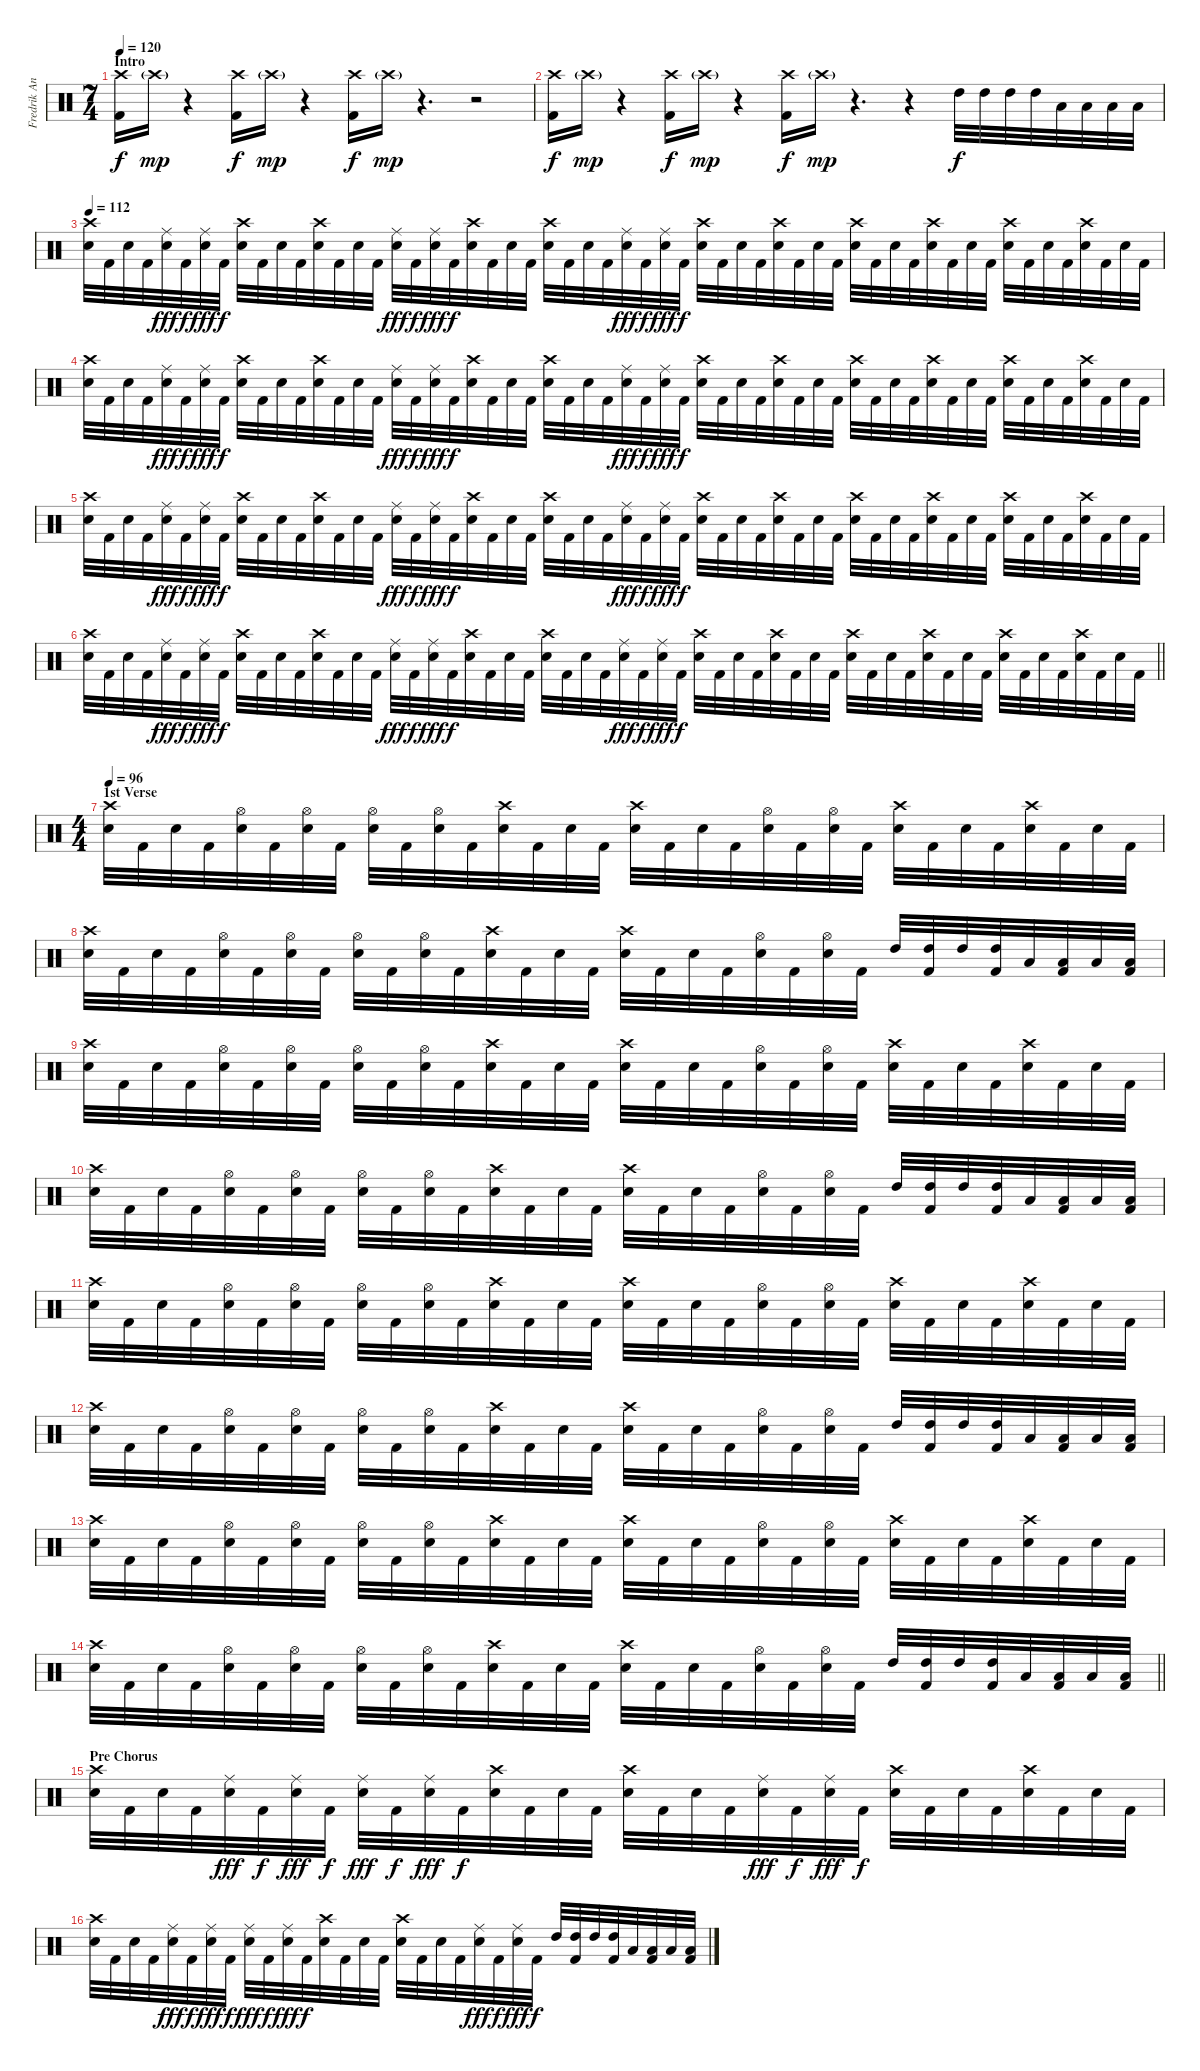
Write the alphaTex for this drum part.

\track ("Fredrik Andersson" "Fredrik An") {instrument percussion}
\staff {score}
\articulation defaults
\ts (7 4)
\section ("" "Intro")
\tempo 120
\tempo 128
\tempo 120
\clef neutral
\ks c
("Crash high (hit)" "Kick (hit) 2").16{dy f} "Crash high (hit)"{g}.16{dy mp} r.4 ("Crash high (hit)" "Kick (hit) 2").16{dy f} "Crash high (hit)"{g}.16{dy mp} r.4 ("Crash high (hit)" "Kick (hit) 2").16{dy f} "Crash high (hit)"{g}.16{dy mp} r.4{d} r.2 |
("Crash high (hit)" "Kick (hit) 2").16{dy f} "Crash high (hit)"{g}.16{dy mp} r.4 ("Crash high (hit)" "Kick (hit) 2").16{dy f} "Crash high (hit)"{g}.16{dy mp} r.4 ("Crash high (hit)" "Kick (hit) 2").16{dy f} "Crash high (hit)"{g}.16{dy mp} r.4{d} r.4 "High Tom (hit)".32{dy f} "High Tom (hit)".32 "High Tom (hit)".32 "High Tom (hit)".32 "Low Tom (hit)".32 "Low Tom (hit)".32 "Low Tom (hit)".32 "Low Tom (hit)".32 |
\tempo 112
("Crash high (hit)" "Snare (hit) 2").32 "Kick (hit) 2".32 "Snare (hit) 2".32 "Kick (hit) 2".32 ("Ride (middle)" "Snare (hit) 2").32{dy fff} "Kick (hit) 2".32{dy f} ("Ride (middle)" "Snare (hit) 2").32{dy fff} "Kick (hit) 2".32{dy f} ("Crash high (hit)" "Snare (hit) 2").32 "Kick (hit) 2".32 "Snare (hit) 2".32 "Kick (hit) 2".32 ("Crash high (hit)" "Snare (hit) 2").32 "Kick (hit) 2".32 "Snare (hit) 2".32 "Kick (hit) 2".32 ("Ride (middle)" "Snare (hit) 2").32{dy fff} "Kick (hit) 2".32{dy f} ("Ride (middle)" "Snare (hit) 2").32{dy fff} "Kick (hit) 2".32{dy f} ("Crash high (hit)" "Snare (hit) 2").32 "Kick (hit) 2".32 "Snare (hit) 2".32 "Kick (hit) 2".32 ("Crash high (hit)" "Snare (hit) 2").32 "Kick (hit) 2".32 "Snare (hit) 2".32 "Kick (hit) 2".32 ("Ride (middle)" "Snare (hit) 2").32{dy fff} "Kick (hit) 2".32{dy f} ("Ride (middle)" "Snare (hit) 2").32{dy fff} "Kick (hit) 2".32{dy f} ("Crash high (hit)" "Snare (hit) 2").32 "Kick (hit) 2".32 "Snare (hit) 2".32 "Kick (hit) 2".32 ("Crash high (hit)" "Snare (hit) 2").32 "Kick (hit) 2".32 "Snare (hit) 2".32 "Kick (hit) 2".32 ("Crash high (hit)" "Snare (hit) 2").32 "Kick (hit) 2".32 "Snare (hit) 2".32 "Kick (hit) 2".32 ("Crash high (hit)" "Snare (hit) 2").32 "Kick (hit) 2".32 "Snare (hit) 2".32 "Kick (hit) 2".32 ("Crash high (hit)" "Snare (hit) 2").32 "Kick (hit) 2".32 "Snare (hit) 2".32 "Kick (hit) 2".32 ("Crash high (hit)" "Snare (hit) 2").32 "Kick (hit) 2".32 "Snare (hit) 2".32 "Kick (hit) 2".32 |
("Crash high (hit)" "Snare (hit) 2").32 "Kick (hit) 2".32 "Snare (hit) 2".32 "Kick (hit) 2".32 ("Ride (middle)" "Snare (hit) 2").32{dy fff} "Kick (hit) 2".32{dy f} ("Ride (middle)" "Snare (hit) 2").32{dy fff} "Kick (hit) 2".32{dy f} ("Crash high (hit)" "Snare (hit) 2").32 "Kick (hit) 2".32 "Snare (hit) 2".32 "Kick (hit) 2".32 ("Crash high (hit)" "Snare (hit) 2").32 "Kick (hit) 2".32 "Snare (hit) 2".32 "Kick (hit) 2".32 ("Ride (middle)" "Snare (hit) 2").32{dy fff} "Kick (hit) 2".32{dy f} ("Ride (middle)" "Snare (hit) 2").32{dy fff} "Kick (hit) 2".32{dy f} ("Crash high (hit)" "Snare (hit) 2").32 "Kick (hit) 2".32 "Snare (hit) 2".32 "Kick (hit) 2".32 ("Crash high (hit)" "Snare (hit) 2").32 "Kick (hit) 2".32 "Snare (hit) 2".32 "Kick (hit) 2".32 ("Ride (middle)" "Snare (hit) 2").32{dy fff} "Kick (hit) 2".32{dy f} ("Ride (middle)" "Snare (hit) 2").32{dy fff} "Kick (hit) 2".32{dy f} ("Crash high (hit)" "Snare (hit) 2").32 "Kick (hit) 2".32 "Snare (hit) 2".32 "Kick (hit) 2".32 ("Crash high (hit)" "Snare (hit) 2").32 "Kick (hit) 2".32 "Snare (hit) 2".32 "Kick (hit) 2".32 ("Crash high (hit)" "Snare (hit) 2").32 "Kick (hit) 2".32 "Snare (hit) 2".32 "Kick (hit) 2".32 ("Crash high (hit)" "Snare (hit) 2").32 "Kick (hit) 2".32 "Snare (hit) 2".32 "Kick (hit) 2".32 ("Crash high (hit)" "Snare (hit) 2").32 "Kick (hit) 2".32 "Snare (hit) 2".32 "Kick (hit) 2".32 ("Crash high (hit)" "Snare (hit) 2").32 "Kick (hit) 2".32 "Snare (hit) 2".32 "Kick (hit) 2".32 |
("Crash high (hit)" "Snare (hit) 2").32 "Kick (hit) 2".32 "Snare (hit) 2".32 "Kick (hit) 2".32 ("Ride (middle)" "Snare (hit) 2").32{dy fff} "Kick (hit) 2".32{dy f} ("Ride (middle)" "Snare (hit) 2").32{dy fff} "Kick (hit) 2".32{dy f} ("Crash high (hit)" "Snare (hit) 2").32 "Kick (hit) 2".32 "Snare (hit) 2".32 "Kick (hit) 2".32 ("Crash high (hit)" "Snare (hit) 2").32 "Kick (hit) 2".32 "Snare (hit) 2".32 "Kick (hit) 2".32 ("Ride (middle)" "Snare (hit) 2").32{dy fff} "Kick (hit) 2".32{dy f} ("Ride (middle)" "Snare (hit) 2").32{dy fff} "Kick (hit) 2".32{dy f} ("Crash high (hit)" "Snare (hit) 2").32 "Kick (hit) 2".32 "Snare (hit) 2".32 "Kick (hit) 2".32 ("Crash high (hit)" "Snare (hit) 2").32 "Kick (hit) 2".32 "Snare (hit) 2".32 "Kick (hit) 2".32 ("Ride (middle)" "Snare (hit) 2").32{dy fff} "Kick (hit) 2".32{dy f} ("Ride (middle)" "Snare (hit) 2").32{dy fff} "Kick (hit) 2".32{dy f} ("Crash high (hit)" "Snare (hit) 2").32 "Kick (hit) 2".32 "Snare (hit) 2".32 "Kick (hit) 2".32 ("Crash high (hit)" "Snare (hit) 2").32 "Kick (hit) 2".32 "Snare (hit) 2".32 "Kick (hit) 2".32 ("Crash high (hit)" "Snare (hit) 2").32 "Kick (hit) 2".32 "Snare (hit) 2".32 "Kick (hit) 2".32 ("Crash high (hit)" "Snare (hit) 2").32 "Kick (hit) 2".32 "Snare (hit) 2".32 "Kick (hit) 2".32 ("Crash high (hit)" "Snare (hit) 2").32 "Kick (hit) 2".32 "Snare (hit) 2".32 "Kick (hit) 2".32 ("Crash high (hit)" "Snare (hit) 2").32 "Kick (hit) 2".32 "Snare (hit) 2".32 "Kick (hit) 2".32 |
\barLineRight lightlight
("Crash high (hit)" "Snare (hit) 2").32 "Kick (hit) 2".32 "Snare (hit) 2".32 "Kick (hit) 2".32 ("Ride (middle)" "Snare (hit) 2").32{dy fff} "Kick (hit) 2".32{dy f} ("Ride (middle)" "Snare (hit) 2").32{dy fff} "Kick (hit) 2".32{dy f} ("Crash high (hit)" "Snare (hit) 2").32 "Kick (hit) 2".32 "Snare (hit) 2".32 "Kick (hit) 2".32 ("Crash high (hit)" "Snare (hit) 2").32 "Kick (hit) 2".32 "Snare (hit) 2".32 "Kick (hit) 2".32 ("Ride (middle)" "Snare (hit) 2").32{dy fff} "Kick (hit) 2".32{dy f} ("Ride (middle)" "Snare (hit) 2").32{dy fff} "Kick (hit) 2".32{dy f} ("Crash high (hit)" "Snare (hit) 2").32 "Kick (hit) 2".32 "Snare (hit) 2".32 "Kick (hit) 2".32 ("Crash high (hit)" "Snare (hit) 2").32 "Kick (hit) 2".32 "Snare (hit) 2".32 "Kick (hit) 2".32 ("Ride (middle)" "Snare (hit) 2").32{dy fff} "Kick (hit) 2".32{dy f} ("Ride (middle)" "Snare (hit) 2").32{dy fff} "Kick (hit) 2".32{dy f} ("Crash high (hit)" "Snare (hit) 2").32 "Kick (hit) 2".32 "Snare (hit) 2".32 "Kick (hit) 2".32 ("Crash high (hit)" "Snare (hit) 2").32 "Kick (hit) 2".32 "Snare (hit) 2".32 "Kick (hit) 2".32 ("Crash high (hit)" "Snare (hit) 2").32 "Kick (hit) 2".32 "Snare (hit) 2".32 "Kick (hit) 2".32 ("Crash high (hit)" "Snare (hit) 2").32 "Kick (hit) 2".32 "Snare (hit) 2".32 "Kick (hit) 2".32 ("Crash high (hit)" "Snare (hit) 2").32 "Kick (hit) 2".32 "Snare (hit) 2".32 "Kick (hit) 2".32 ("Crash high (hit)" "Snare (hit) 2").32 "Kick (hit) 2".32 "Snare (hit) 2".32 "Kick (hit) 2".32 |
\ts (4 4)
\section ("" "1st Verse")
\tempo 96
("Crash high (hit)" "Snare (hit) 2").32 "Kick (hit) 2".32 "Snare (hit) 2".32 "Kick (hit) 2".32 ("Hi-Hat (open)" "Snare (hit) 2").32 "Kick (hit) 2".32 ("Hi-Hat (open)" "Snare (hit) 2").32 "Kick (hit) 2".32 ("Hi-Hat (open)" "Snare (hit) 2").32 "Kick (hit) 2".32 ("Hi-Hat (open)" "Snare (hit) 2").32 "Kick (hit) 2".32 ("Crash high (hit)" "Snare (hit) 2").32 "Kick (hit) 2".32 "Snare (hit) 2".32 "Kick (hit) 2".32 ("Crash high (hit)" "Snare (hit) 2").32 "Kick (hit) 2".32 "Snare (hit) 2".32 "Kick (hit) 2".32 ("Hi-Hat (open)" "Snare (hit) 2").32 "Kick (hit) 2".32 ("Hi-Hat (open)" "Snare (hit) 2").32 "Kick (hit) 2".32 ("Crash high (hit)" "Snare (hit) 2").32 "Kick (hit) 2".32 "Snare (hit) 2".32 "Kick (hit) 2".32 ("Crash high (hit)" "Snare (hit) 2").32 "Kick (hit) 2".32 "Snare (hit) 2".32 "Kick (hit) 2".32 |
("Crash high (hit)" "Snare (hit) 2").32 "Kick (hit) 2".32 "Snare (hit) 2".32 "Kick (hit) 2".32 ("Hi-Hat (open)" "Snare (hit) 2").32 "Kick (hit) 2".32 ("Hi-Hat (open)" "Snare (hit) 2").32 "Kick (hit) 2".32 ("Hi-Hat (open)" "Snare (hit) 2").32 "Kick (hit) 2".32 ("Hi-Hat (open)" "Snare (hit) 2").32 "Kick (hit) 2".32 ("Crash high (hit)" "Snare (hit) 2").32 "Kick (hit) 2".32 "Snare (hit) 2".32 "Kick (hit) 2".32 ("Crash high (hit)" "Snare (hit) 2").32 "Kick (hit) 2".32 "Snare (hit) 2".32 "Kick (hit) 2".32 ("Hi-Hat (open)" "Snare (hit) 2").32 "Kick (hit) 2".32 ("Hi-Hat (open)" "Snare (hit) 2").32 "Kick (hit) 2".32 "High Tom (hit)".32 ("High Tom (hit)" "Kick (hit) 2").32 "High Tom (hit)".32 ("High Tom (hit)" "Kick (hit) 2").32 "Low Tom (hit)".32 ("Low Tom (hit)" "Kick (hit) 2").32 "Low Tom (hit)".32 ("Low Tom (hit)" "Kick (hit) 2").32 |
("Crash high (hit)" "Snare (hit) 2").32 "Kick (hit) 2".32 "Snare (hit) 2".32 "Kick (hit) 2".32 ("Hi-Hat (open)" "Snare (hit) 2").32 "Kick (hit) 2".32 ("Hi-Hat (open)" "Snare (hit) 2").32 "Kick (hit) 2".32 ("Hi-Hat (open)" "Snare (hit) 2").32 "Kick (hit) 2".32 ("Hi-Hat (open)" "Snare (hit) 2").32 "Kick (hit) 2".32 ("Crash high (hit)" "Snare (hit) 2").32 "Kick (hit) 2".32 "Snare (hit) 2".32 "Kick (hit) 2".32 ("Crash high (hit)" "Snare (hit) 2").32 "Kick (hit) 2".32 "Snare (hit) 2".32 "Kick (hit) 2".32 ("Hi-Hat (open)" "Snare (hit) 2").32 "Kick (hit) 2".32 ("Hi-Hat (open)" "Snare (hit) 2").32 "Kick (hit) 2".32 ("Crash high (hit)" "Snare (hit) 2").32 "Kick (hit) 2".32 "Snare (hit) 2".32 "Kick (hit) 2".32 ("Crash high (hit)" "Snare (hit) 2").32 "Kick (hit) 2".32 "Snare (hit) 2".32 "Kick (hit) 2".32 |
("Crash high (hit)" "Snare (hit) 2").32 "Kick (hit) 2".32 "Snare (hit) 2".32 "Kick (hit) 2".32 ("Hi-Hat (open)" "Snare (hit) 2").32 "Kick (hit) 2".32 ("Hi-Hat (open)" "Snare (hit) 2").32 "Kick (hit) 2".32 ("Hi-Hat (open)" "Snare (hit) 2").32 "Kick (hit) 2".32 ("Hi-Hat (open)" "Snare (hit) 2").32 "Kick (hit) 2".32 ("Crash high (hit)" "Snare (hit) 2").32 "Kick (hit) 2".32 "Snare (hit) 2".32 "Kick (hit) 2".32 ("Crash high (hit)" "Snare (hit) 2").32 "Kick (hit) 2".32 "Snare (hit) 2".32 "Kick (hit) 2".32 ("Hi-Hat (open)" "Snare (hit) 2").32 "Kick (hit) 2".32 ("Hi-Hat (open)" "Snare (hit) 2").32 "Kick (hit) 2".32 "High Tom (hit)".32 ("High Tom (hit)" "Kick (hit) 2").32 "High Tom (hit)".32 ("High Tom (hit)" "Kick (hit) 2").32 "Low Tom (hit)".32 ("Low Tom (hit)" "Kick (hit) 2").32 "Low Tom (hit)".32 ("Low Tom (hit)" "Kick (hit) 2").32 |
("Crash high (hit)" "Snare (hit) 2").32 "Kick (hit) 2".32 "Snare (hit) 2".32 "Kick (hit) 2".32 ("Hi-Hat (open)" "Snare (hit) 2").32 "Kick (hit) 2".32 ("Hi-Hat (open)" "Snare (hit) 2").32 "Kick (hit) 2".32 ("Hi-Hat (open)" "Snare (hit) 2").32 "Kick (hit) 2".32 ("Hi-Hat (open)" "Snare (hit) 2").32 "Kick (hit) 2".32 ("Crash high (hit)" "Snare (hit) 2").32 "Kick (hit) 2".32 "Snare (hit) 2".32 "Kick (hit) 2".32 ("Crash high (hit)" "Snare (hit) 2").32 "Kick (hit) 2".32 "Snare (hit) 2".32 "Kick (hit) 2".32 ("Hi-Hat (open)" "Snare (hit) 2").32 "Kick (hit) 2".32 ("Hi-Hat (open)" "Snare (hit) 2").32 "Kick (hit) 2".32 ("Crash high (hit)" "Snare (hit) 2").32 "Kick (hit) 2".32 "Snare (hit) 2".32 "Kick (hit) 2".32 ("Crash high (hit)" "Snare (hit) 2").32 "Kick (hit) 2".32 "Snare (hit) 2".32 "Kick (hit) 2".32 |
("Crash high (hit)" "Snare (hit) 2").32 "Kick (hit) 2".32 "Snare (hit) 2".32 "Kick (hit) 2".32 ("Hi-Hat (open)" "Snare (hit) 2").32 "Kick (hit) 2".32 ("Hi-Hat (open)" "Snare (hit) 2").32 "Kick (hit) 2".32 ("Hi-Hat (open)" "Snare (hit) 2").32 "Kick (hit) 2".32 ("Hi-Hat (open)" "Snare (hit) 2").32 "Kick (hit) 2".32 ("Crash high (hit)" "Snare (hit) 2").32 "Kick (hit) 2".32 "Snare (hit) 2".32 "Kick (hit) 2".32 ("Crash high (hit)" "Snare (hit) 2").32 "Kick (hit) 2".32 "Snare (hit) 2".32 "Kick (hit) 2".32 ("Hi-Hat (open)" "Snare (hit) 2").32 "Kick (hit) 2".32 ("Hi-Hat (open)" "Snare (hit) 2").32 "Kick (hit) 2".32 "High Tom (hit)".32 ("High Tom (hit)" "Kick (hit) 2").32 "High Tom (hit)".32 ("High Tom (hit)" "Kick (hit) 2").32 "Low Tom (hit)".32 ("Low Tom (hit)" "Kick (hit) 2").32 "Low Tom (hit)".32 ("Low Tom (hit)" "Kick (hit) 2").32 |
("Crash high (hit)" "Snare (hit) 2").32 "Kick (hit) 2".32 "Snare (hit) 2".32 "Kick (hit) 2".32 ("Hi-Hat (open)" "Snare (hit) 2").32 "Kick (hit) 2".32 ("Hi-Hat (open)" "Snare (hit) 2").32 "Kick (hit) 2".32 ("Hi-Hat (open)" "Snare (hit) 2").32 "Kick (hit) 2".32 ("Hi-Hat (open)" "Snare (hit) 2").32 "Kick (hit) 2".32 ("Crash high (hit)" "Snare (hit) 2").32 "Kick (hit) 2".32 "Snare (hit) 2".32 "Kick (hit) 2".32 ("Crash high (hit)" "Snare (hit) 2").32 "Kick (hit) 2".32 "Snare (hit) 2".32 "Kick (hit) 2".32 ("Hi-Hat (open)" "Snare (hit) 2").32 "Kick (hit) 2".32 ("Hi-Hat (open)" "Snare (hit) 2").32 "Kick (hit) 2".32 ("Crash high (hit)" "Snare (hit) 2").32 "Kick (hit) 2".32 "Snare (hit) 2".32 "Kick (hit) 2".32 ("Crash high (hit)" "Snare (hit) 2").32 "Kick (hit) 2".32 "Snare (hit) 2".32 "Kick (hit) 2".32 |
\barLineRight lightlight
("Crash high (hit)" "Snare (hit) 2").32 "Kick (hit) 2".32 "Snare (hit) 2".32 "Kick (hit) 2".32 ("Hi-Hat (open)" "Snare (hit) 2").32 "Kick (hit) 2".32 ("Hi-Hat (open)" "Snare (hit) 2").32 "Kick (hit) 2".32 ("Hi-Hat (open)" "Snare (hit) 2").32 "Kick (hit) 2".32 ("Hi-Hat (open)" "Snare (hit) 2").32 "Kick (hit) 2".32 ("Crash high (hit)" "Snare (hit) 2").32 "Kick (hit) 2".32 "Snare (hit) 2".32 "Kick (hit) 2".32 ("Crash high (hit)" "Snare (hit) 2").32 "Kick (hit) 2".32 "Snare (hit) 2".32 "Kick (hit) 2".32 ("Hi-Hat (open)" "Snare (hit) 2").32 "Kick (hit) 2".32 ("Hi-Hat (open)" "Snare (hit) 2").32 "Kick (hit) 2".32 "High Tom (hit)".32 ("High Tom (hit)" "Kick (hit) 2").32 "High Tom (hit)".32 ("High Tom (hit)" "Kick (hit) 2").32 "Low Tom (hit)".32 ("Low Tom (hit)" "Kick (hit) 2").32 "Low Tom (hit)".32 ("Low Tom (hit)" "Kick (hit) 2").32 |
\section ("" "Pre Chorus")
("Crash high (hit)" "Snare (hit) 2").32 "Kick (hit) 2".32 "Snare (hit) 2".32 "Kick (hit) 2".32 ("Ride (middle)" "Snare (hit) 2").32{dy fff} "Kick (hit) 2".32{dy f} ("Ride (middle)" "Snare (hit) 2").32{dy fff} "Kick (hit) 2".32{dy f} ("Ride (middle)" "Snare (hit) 2").32{dy fff} "Kick (hit) 2".32{dy f} ("Ride (middle)" "Snare (hit) 2").32{dy fff} "Kick (hit) 2".32{dy f} ("Crash high (hit)" "Snare (hit) 2").32 "Kick (hit) 2".32 "Snare (hit) 2".32 "Kick (hit) 2".32 ("Crash high (hit)" "Snare (hit) 2").32 "Kick (hit) 2".32 "Snare (hit) 2".32 "Kick (hit) 2".32 ("Ride (middle)" "Snare (hit) 2").32{dy fff} "Kick (hit) 2".32{dy f} ("Ride (middle)" "Snare (hit) 2").32{dy fff} "Kick (hit) 2".32{dy f} ("Crash high (hit)" "Snare (hit) 2").32 "Kick (hit) 2".32 "Snare (hit) 2".32 "Kick (hit) 2".32 ("Crash high (hit)" "Snare (hit) 2").32 "Kick (hit) 2".32 "Snare (hit) 2".32 "Kick (hit) 2".32 |
("Crash high (hit)" "Snare (hit) 2").32 "Kick (hit) 2".32 "Snare (hit) 2".32 "Kick (hit) 2".32 ("Ride (middle)" "Snare (hit) 2").32{dy fff} "Kick (hit) 2".32{dy f} ("Ride (middle)" "Snare (hit) 2").32{dy fff} "Kick (hit) 2".32{dy f} ("Ride (middle)" "Snare (hit) 2").32{dy fff} "Kick (hit) 2".32{dy f} ("Ride (middle)" "Snare (hit) 2").32{dy fff} "Kick (hit) 2".32{dy f} ("Crash high (hit)" "Snare (hit) 2").32 "Kick (hit) 2".32 "Snare (hit) 2".32 "Kick (hit) 2".32 ("Crash high (hit)" "Snare (hit) 2").32 "Kick (hit) 2".32 "Snare (hit) 2".32 "Kick (hit) 2".32 ("Ride (middle)" "Snare (hit) 2").32{dy fff} "Kick (hit) 2".32{dy f} ("Ride (middle)" "Snare (hit) 2").32{dy fff} "Kick (hit) 2".32{dy f} "High Tom (hit)".32 ("High Tom (hit)" "Kick (hit) 2").32 "High Tom (hit)".32 ("High Tom (hit)" "Kick (hit) 2").32 "Low Tom (hit)".32 ("Low Tom (hit)" "Kick (hit) 2").32 "Low Tom (hit)".32 ("Low Tom (hit)" "Kick (hit) 2").32
